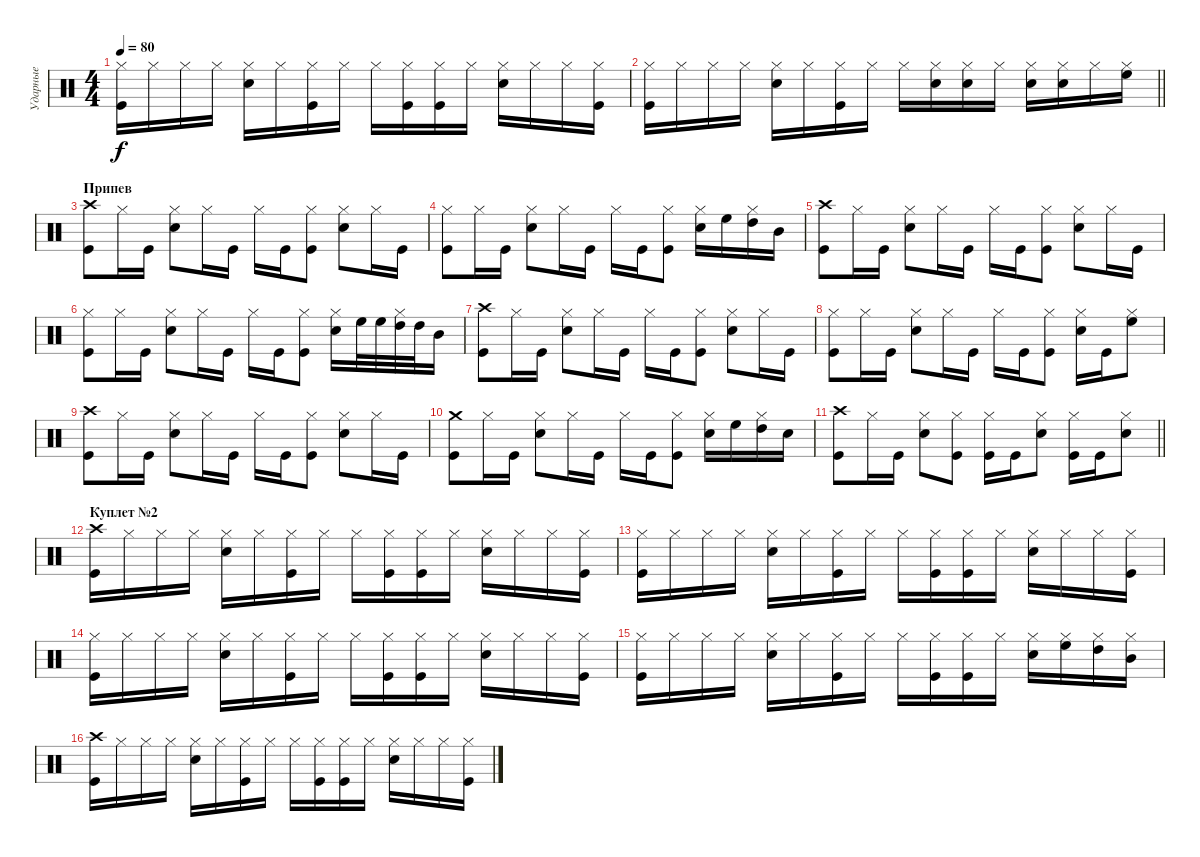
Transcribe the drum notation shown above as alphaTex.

\track ("Ударные" "Ударные") {instrument percussion}
\staff {score}
\articulation defaults
\ts (4 4)
\tempo 80
\clef neutral
\ks c
("Hi-Hat (closed)" "Kick (hit)").16{dy f} "Hi-Hat (closed)".16 "Hi-Hat (closed)".16 "Hi-Hat (closed)".16 ("Hi-Hat (closed)" "Snare (hit) 2").16 "Hi-Hat (closed)".16 ("Hi-Hat (closed)" "Kick (hit)").16 "Hi-Hat (closed)".16 "Hi-Hat (closed)".16 ("Hi-Hat (closed)" "Kick (hit)").16 ("Hi-Hat (closed)" "Kick (hit)").16 "Hi-Hat (closed)".16 ("Hi-Hat (closed)" "Snare (hit) 2").16 "Hi-Hat (closed)".16 "Hi-Hat (closed)".16 ("Hi-Hat (closed)" "Kick (hit)").16 |
\barLineRight lightlight
("Hi-Hat (closed)" "Kick (hit)").16 "Hi-Hat (closed)".16 "Hi-Hat (closed)".16 "Hi-Hat (closed)".16 ("Hi-Hat (closed)" "Snare (hit) 2").16 "Hi-Hat (closed)".16 ("Hi-Hat (closed)" "Kick (hit)").16 "Hi-Hat (closed)".16 "Hi-Hat (closed)".16 ("Hi-Hat (closed)" "Snare (hit) 2").16 ("Hi-Hat (closed)" "Snare (hit) 2").16 "Hi-Hat (closed)".16 ("Hi-Hat (closed)" "Snare (hit) 2").16 ("Hi-Hat (closed)" "Snare (hit) 2").16 "Hi-Hat (closed)".16 ("Hi-Hat (closed)" "High Floor Tom (hit)").16 |
\section ("" "Припев")
("Crash high (hit)" "Kick (hit)").8 "Hi-Hat (closed)".16 "Kick (hit)".16 ("Hi-Hat (closed)" "Snare (hit) 2").8 "Hi-Hat (closed)".16 "Kick (hit)".16 "Hi-Hat (closed)".16 "Kick (hit)".16 ("Hi-Hat (closed)" "Kick (hit)").8 ("Hi-Hat (closed)" "Snare (hit) 2").8 "Hi-Hat (closed)".16 "Kick (hit)".16 |
("Hi-Hat (closed)" "Kick (hit)").8 "Hi-Hat (closed)".16 "Kick (hit)".16 ("Hi-Hat (closed)" "Snare (hit) 2").8 "Hi-Hat (closed)".16 "Kick (hit)".16 "Hi-Hat (closed)".16 "Kick (hit)".16 ("Hi-Hat (closed)" "Kick (hit)").8 ("Hi-Hat (closed)" "Snare (hit) 2").16 "High Floor Tom (hit)".16 ("Hi-Hat (closed)" "High Tom (hit)").16 "Mid Tom (hit)".16 |
("Crash high (hit)" "Kick (hit)").8 "Hi-Hat (closed)".16 "Kick (hit)".16 ("Hi-Hat (closed)" "Snare (hit) 2").8 "Hi-Hat (closed)".16 "Kick (hit)".16 "Hi-Hat (closed)".16 "Kick (hit)".16 ("Hi-Hat (closed)" "Kick (hit)").8 ("Hi-Hat (closed)" "Snare (hit) 2").8 "Hi-Hat (closed)".16 "Kick (hit)".16 |
("Hi-Hat (closed)" "Kick (hit)").8 "Hi-Hat (closed)".16 "Kick (hit)".16 ("Hi-Hat (closed)" "Snare (hit) 2").8 "Hi-Hat (closed)".16 "Kick (hit)".16 "Hi-Hat (closed)".16 "Kick (hit)".16 ("Hi-Hat (closed)" "Kick (hit)").8 ("Hi-Hat (closed)" "Snare (hit) 2").16 "High Floor Tom (hit)".32 "High Floor Tom (hit)".32 ("Hi-Hat (closed)" "High Tom (hit)").32 "High Tom (hit)".32 "Mid Tom (hit)".16 |
("Crash high (hit)" "Kick (hit)").8 "Hi-Hat (closed)".16 "Kick (hit)".16 ("Hi-Hat (closed)" "Snare (hit) 2").8 "Hi-Hat (closed)".16 "Kick (hit)".16 "Hi-Hat (closed)".16 "Kick (hit)".16 ("Hi-Hat (closed)" "Kick (hit)").8 ("Hi-Hat (closed)" "Snare (hit) 2").8 "Hi-Hat (closed)".16 "Kick (hit)".16 |
("Hi-Hat (closed)" "Kick (hit)").8 "Hi-Hat (closed)".16 "Kick (hit)".16 ("Hi-Hat (closed)" "Snare (hit) 2").8 "Hi-Hat (closed)".16 "Kick (hit)".16 "Hi-Hat (closed)".16 "Kick (hit)".16 ("Hi-Hat (closed)" "Kick (hit)").8 ("Hi-Hat (closed)" "Snare (hit) 2").16 "Kick (hit)".16 ("Hi-Hat (closed)" "High Floor Tom (hit)").8 |
("Crash high (hit)" "Kick (hit)").8 "Hi-Hat (closed)".16 "Kick (hit)".16 ("Hi-Hat (closed)" "Snare (hit) 2").8 "Hi-Hat (closed)".16 "Kick (hit)".16 "Hi-Hat (closed)".16 "Kick (hit)".16 ("Hi-Hat (closed)" "Kick (hit)").8 ("Hi-Hat (closed)" "Snare (hit) 2").8 "Hi-Hat (closed)".16 "Kick (hit)".16 |
("Crash medium (hit)" "Kick (hit)").8 "Hi-Hat (closed)".16 "Kick (hit)".16 ("Hi-Hat (closed)" "Snare (hit) 2").8 "Hi-Hat (closed)".16 "Kick (hit)".16 "Hi-Hat (closed)".16 "Kick (hit)".16 ("Hi-Hat (closed)" "Kick (hit)").8 ("Hi-Hat (closed)" "Snare (hit) 2").16 "High Floor Tom (hit)".16 ("Hi-Hat (closed)" "High Tom (hit)").16 "Snare (hit) 2".16 |
\barLineRight lightlight
("Crash high (hit)" "Kick (hit)").8 "Hi-Hat (closed)".16 "Kick (hit)".16 ("Hi-Hat (closed)" "Snare (hit) 2").8 ("Hi-Hat (closed)" "Kick (hit)").8 ("Hi-Hat (closed)" "Kick (hit)").16 "Kick (hit)".16 ("Hi-Hat (closed)" "Snare (hit) 2").8 ("Hi-Hat (closed)" "Kick (hit)").16 "Kick (hit)".16 ("Hi-Hat (closed)" "Snare (hit) 2").8 |
\section ("" "Куплет №2")
("Crash high (hit)" "Kick (hit)").16 "Hi-Hat (closed)".16 "Hi-Hat (closed)".16 "Hi-Hat (closed)".16 ("Hi-Hat (closed)" "Snare (hit) 2").16 "Hi-Hat (closed)".16 ("Hi-Hat (closed)" "Kick (hit)").16 "Hi-Hat (closed)".16 "Hi-Hat (closed)".16 ("Hi-Hat (closed)" "Kick (hit)").16 ("Hi-Hat (closed)" "Kick (hit)").16 "Hi-Hat (closed)".16 ("Hi-Hat (closed)" "Snare (hit) 2").16 "Hi-Hat (closed)".16 "Hi-Hat (closed)".16 ("Hi-Hat (closed)" "Kick (hit)").16 |
("Hi-Hat (closed)" "Kick (hit)").16 "Hi-Hat (closed)".16 "Hi-Hat (closed)".16 "Hi-Hat (closed)".16 ("Hi-Hat (closed)" "Snare (hit) 2").16 "Hi-Hat (closed)".16 ("Hi-Hat (closed)" "Kick (hit)").16 "Hi-Hat (closed)".16 "Hi-Hat (closed)".16 ("Hi-Hat (closed)" "Kick (hit)").16 ("Hi-Hat (closed)" "Kick (hit)").16 "Hi-Hat (closed)".16 ("Hi-Hat (closed)" "Snare (hit) 2").16 "Hi-Hat (closed)".16 "Hi-Hat (closed)".16 ("Hi-Hat (closed)" "Kick (hit)").16 |
("Hi-Hat (closed)" "Kick (hit)").16 "Hi-Hat (closed)".16 "Hi-Hat (closed)".16 "Hi-Hat (closed)".16 ("Hi-Hat (closed)" "Snare (hit) 2").16 "Hi-Hat (closed)".16 ("Hi-Hat (closed)" "Kick (hit)").16 "Hi-Hat (closed)".16 "Hi-Hat (closed)".16 ("Hi-Hat (closed)" "Kick (hit)").16 ("Hi-Hat (closed)" "Kick (hit)").16 "Hi-Hat (closed)".16 ("Hi-Hat (closed)" "Snare (hit) 2").16 "Hi-Hat (closed)".16 "Hi-Hat (closed)".16 ("Hi-Hat (closed)" "Kick (hit)").16 |
("Hi-Hat (closed)" "Kick (hit)").16 "Hi-Hat (closed)".16 "Hi-Hat (closed)".16 "Hi-Hat (closed)".16 ("Hi-Hat (closed)" "Snare (hit) 2").16 "Hi-Hat (closed)".16 ("Hi-Hat (closed)" "Kick (hit)").16 "Hi-Hat (closed)".16 "Hi-Hat (closed)".16 ("Hi-Hat (closed)" "Kick (hit)").16 ("Hi-Hat (closed)" "Kick (hit)").16 "Hi-Hat (closed)".16 ("Hi-Hat (closed)" "Snare (hit) 2").16 ("Hi-Hat (closed)" "High Floor Tom (hit)").16 ("Hi-Hat (closed)" "High Tom (hit)").16 ("Hi-Hat (closed)" "Mid Tom (hit)").16 |
("Crash high (hit)" "Kick (hit)").16 "Hi-Hat (closed)".16 "Hi-Hat (closed)".16 "Hi-Hat (closed)".16 ("Hi-Hat (closed)" "Snare (hit) 2").16 "Hi-Hat (closed)".16 ("Hi-Hat (closed)" "Kick (hit)").16 "Hi-Hat (closed)".16 "Hi-Hat (closed)".16 ("Hi-Hat (closed)" "Kick (hit)").16 ("Hi-Hat (closed)" "Kick (hit)").16 "Hi-Hat (closed)".16 ("Hi-Hat (closed)" "Snare (hit) 2").16 "Hi-Hat (closed)".16 "Hi-Hat (closed)".16 ("Hi-Hat (closed)" "Kick (hit)").16
